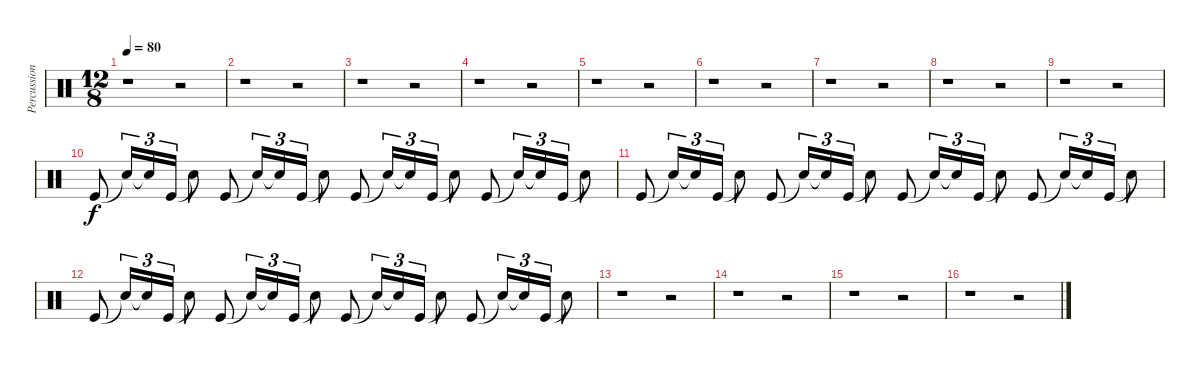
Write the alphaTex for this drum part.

\track ("Percussion" "Percussion") {instrument percussion}
\staff {score}
\articulation defaults
\ts (12 8)
\tempo 80
\clef neutral
\ks c
r.1{dy f} r.2 |
r.1 r.2 |
r.1 r.2 |
r.1 r.2 |
r.1 r.2 |
r.1 r.2 |
r.1 r.2 |
r.1 r.2 |
r.1 r.2 |
"Kick (hit)".8 "Snare (hit)"{t}.16{tu (3 2)} "Snare (hit)"{t}.16{tu (3 2)} "Kick (hit)".16{tu (3 2)} "Snare (hit)"{t}.8 "Kick (hit)".8 "Snare (hit)"{t}.16{tu (3 2)} "Snare (hit)"{t}.16{tu (3 2)} "Kick (hit)".16{tu (3 2)} "Snare (hit)"{t}.8 "Kick (hit)".8 "Snare (hit)"{t}.16{tu (3 2)} "Snare (hit)"{t}.16{tu (3 2)} "Kick (hit)".16{tu (3 2)} "Snare (hit)"{t}.8 "Kick (hit)".8 "Snare (hit)"{t}.16{tu (3 2)} "Snare (hit)"{t}.16{tu (3 2)} "Kick (hit)".16{tu (3 2)} "Snare (hit)"{t}.8 |
"Kick (hit)".8 "Snare (hit)"{t}.16{tu (3 2)} "Snare (hit)"{t}.16{tu (3 2)} "Kick (hit)".16{tu (3 2)} "Snare (hit)"{t}.8 "Kick (hit)".8 "Snare (hit)"{t}.16{tu (3 2)} "Snare (hit)"{t}.16{tu (3 2)} "Kick (hit)".16{tu (3 2)} "Snare (hit)"{t}.8 "Kick (hit)".8 "Snare (hit)"{t}.16{tu (3 2)} "Snare (hit)"{t}.16{tu (3 2)} "Kick (hit)".16{tu (3 2)} "Snare (hit)"{t}.8 "Kick (hit)".8 "Snare (hit)"{t}.16{tu (3 2)} "Snare (hit)"{t}.16{tu (3 2)} "Kick (hit)".16{tu (3 2)} "Snare (hit)"{t}.8 |
"Kick (hit)".8 "Snare (hit)"{t}.16{tu (3 2)} "Snare (hit)"{t}.16{tu (3 2)} "Kick (hit)".16{tu (3 2)} "Snare (hit)"{t}.8 "Kick (hit)".8 "Snare (hit)"{t}.16{tu (3 2)} "Snare (hit)"{t}.16{tu (3 2)} "Kick (hit)".16{tu (3 2)} "Snare (hit)"{t}.8 "Kick (hit)".8 "Snare (hit)"{t}.16{tu (3 2)} "Snare (hit)"{t}.16{tu (3 2)} "Kick (hit)".16{tu (3 2)} "Snare (hit)"{t}.8 "Kick (hit)".8 "Snare (hit)"{t}.16{tu (3 2)} "Snare (hit)"{t}.16{tu (3 2)} "Kick (hit)".16{tu (3 2)} "Snare (hit)"{t}.8 |
r.1 r.2 |
r.1 r.2 |
r.1 r.2 |
r.1 r.2
